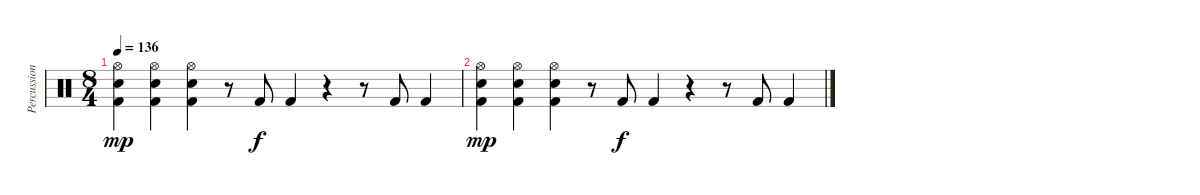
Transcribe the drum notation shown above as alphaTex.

\track ("Percussion" "Percussion") {instrument percussion}
\staff {score}
\articulation defaults
\ts (8 4)
\tempo 136
\clef neutral
\ks c
("Hi-Hat (open)" "Snare (hit) 2" "Kick (hit) 2").4{dy mp} ("Hi-Hat (open)" "Snare (hit) 2" "Kick (hit) 2").4 ("Hi-Hat (open)" "Snare (hit) 2" "Kick (hit) 2").4 r.8 "Kick (hit) 2".8{dy f} "Kick (hit) 2".4 r.4 r.8 "Kick (hit) 2".8 "Kick (hit) 2".4 |
("Hi-Hat (open)" "Snare (hit) 2" "Kick (hit) 2").4{dy mp} ("Hi-Hat (open)" "Snare (hit) 2" "Kick (hit) 2").4 ("Hi-Hat (open)" "Snare (hit) 2" "Kick (hit) 2").4 r.8 "Kick (hit) 2".8{dy f} "Kick (hit) 2".4 r.4 r.8 "Kick (hit) 2".8 "Kick (hit) 2".4
